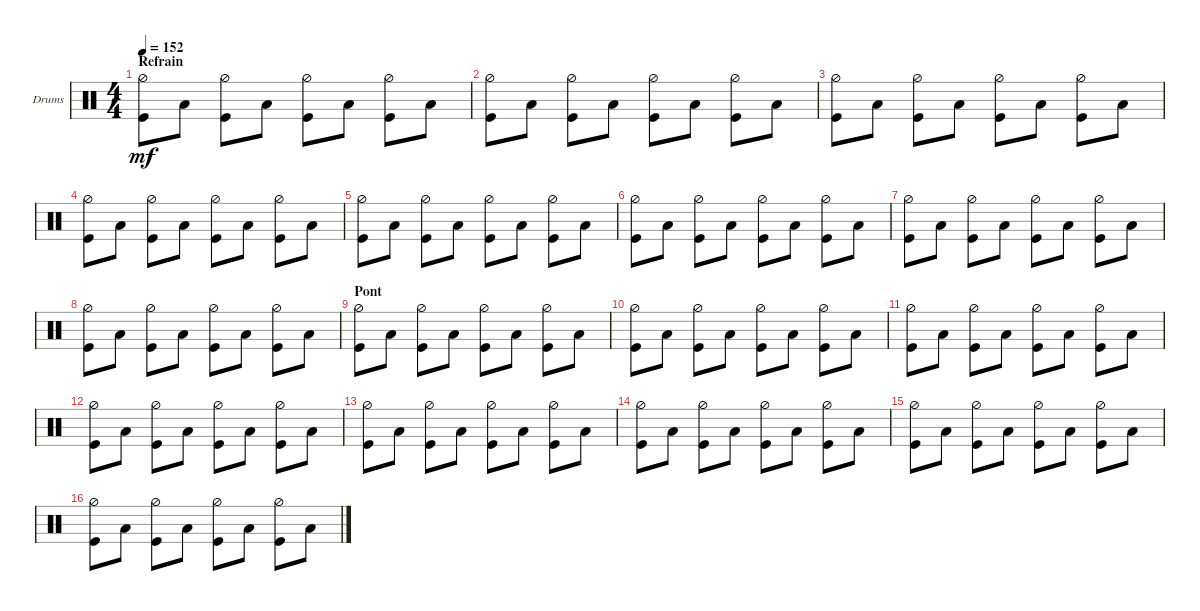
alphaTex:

\defaultSystemsLayout 4
\bracketExtendMode groupsimilarinstruments
\firstSystemTrackNameOrientation horizontal
\otherSystemsTrackNameOrientation horizontal
\track ("Dre Drum" "Drums") {instrument percussion}
\staff {score}
\articulation defaults
\ts (4 4)
\section ("" "Refrain")
\tempo 152
\clef neutral
\ks c
("Kick (hit)" "Hi-Hat (half)").8{dy mf} "Low Tom (hit)".8 ("Kick (hit)" "Hi-Hat (half)").8 "Low Tom (hit)".8 ("Kick (hit)" "Hi-Hat (half)").8 "Low Tom (hit)".8 ("Kick (hit)" "Hi-Hat (half)").8 "Low Tom (hit)".8 |
("Kick (hit)" "Hi-Hat (half)").8 "Low Tom (hit)".8 ("Kick (hit)" "Hi-Hat (half)").8 "Low Tom (hit)".8 ("Kick (hit)" "Hi-Hat (half)").8 "Low Tom (hit)".8 ("Kick (hit)" "Hi-Hat (half)").8 "Low Tom (hit)".8 |
("Kick (hit)" "Hi-Hat (half)").8 "Low Tom (hit)".8 ("Kick (hit)" "Hi-Hat (half)").8 "Low Tom (hit)".8 ("Kick (hit)" "Hi-Hat (half)").8 "Low Tom (hit)".8 ("Kick (hit)" "Hi-Hat (half)").8 "Low Tom (hit)".8 |
("Kick (hit)" "Hi-Hat (half)").8 "Low Tom (hit)".8 ("Kick (hit)" "Hi-Hat (half)").8 "Low Tom (hit)".8 ("Kick (hit)" "Hi-Hat (half)").8 "Low Tom (hit)".8 ("Kick (hit)" "Hi-Hat (half)").8 "Low Tom (hit)".8 |
("Kick (hit)" "Hi-Hat (half)").8 "Low Tom (hit)".8 ("Kick (hit)" "Hi-Hat (half)").8 "Low Tom (hit)".8 ("Kick (hit)" "Hi-Hat (half)").8 "Low Tom (hit)".8 ("Kick (hit)" "Hi-Hat (half)").8 "Low Tom (hit)".8 |
("Kick (hit)" "Hi-Hat (half)").8 "Low Tom (hit)".8 ("Kick (hit)" "Hi-Hat (half)").8 "Low Tom (hit)".8 ("Kick (hit)" "Hi-Hat (half)").8 "Low Tom (hit)".8 ("Kick (hit)" "Hi-Hat (half)").8 "Low Tom (hit)".8 |
("Kick (hit)" "Hi-Hat (half)").8 "Low Tom (hit)".8 ("Kick (hit)" "Hi-Hat (half)").8 "Low Tom (hit)".8 ("Kick (hit)" "Hi-Hat (half)").8 "Low Tom (hit)".8 ("Kick (hit)" "Hi-Hat (half)").8 "Low Tom (hit)".8 |
("Kick (hit)" "Hi-Hat (half)").8 "Low Tom (hit)".8 ("Kick (hit)" "Hi-Hat (half)").8 "Low Tom (hit)".8 ("Kick (hit)" "Hi-Hat (half)").8 "Low Tom (hit)".8 ("Kick (hit)" "Hi-Hat (half)").8 "Low Tom (hit)".8 |
\section ("" "Pont")
("Kick (hit)" "Hi-Hat (half)").8 "Low Tom (hit)".8 ("Kick (hit)" "Hi-Hat (half)").8 "Low Tom (hit)".8 ("Kick (hit)" "Hi-Hat (half)").8 "Low Tom (hit)".8 ("Kick (hit)" "Hi-Hat (half)").8 "Low Tom (hit)".8 |
("Kick (hit)" "Hi-Hat (half)").8 "Low Tom (hit)".8 ("Kick (hit)" "Hi-Hat (half)").8 "Low Tom (hit)".8 ("Kick (hit)" "Hi-Hat (half)").8 "Low Tom (hit)".8 ("Kick (hit)" "Hi-Hat (half)").8 "Low Tom (hit)".8 |
("Kick (hit)" "Hi-Hat (half)").8 "Low Tom (hit)".8 ("Kick (hit)" "Hi-Hat (half)").8 "Low Tom (hit)".8 ("Kick (hit)" "Hi-Hat (half)").8 "Low Tom (hit)".8 ("Kick (hit)" "Hi-Hat (half)").8 "Low Tom (hit)".8 |
("Kick (hit)" "Hi-Hat (half)").8 "Low Tom (hit)".8 ("Kick (hit)" "Hi-Hat (half)").8 "Low Tom (hit)".8 ("Kick (hit)" "Hi-Hat (half)").8 "Low Tom (hit)".8 ("Kick (hit)" "Hi-Hat (half)").8 "Low Tom (hit)".8 |
("Kick (hit)" "Hi-Hat (half)").8 "Low Tom (hit)".8 ("Kick (hit)" "Hi-Hat (half)").8 "Low Tom (hit)".8 ("Kick (hit)" "Hi-Hat (half)").8 "Low Tom (hit)".8 ("Kick (hit)" "Hi-Hat (half)").8 "Low Tom (hit)".8 |
("Kick (hit)" "Hi-Hat (half)").8 "Low Tom (hit)".8 ("Kick (hit)" "Hi-Hat (half)").8 "Low Tom (hit)".8 ("Kick (hit)" "Hi-Hat (half)").8 "Low Tom (hit)".8 ("Kick (hit)" "Hi-Hat (half)").8 "Low Tom (hit)".8 |
("Kick (hit)" "Hi-Hat (half)").8 "Low Tom (hit)".8 ("Kick (hit)" "Hi-Hat (half)").8 "Low Tom (hit)".8 ("Kick (hit)" "Hi-Hat (half)").8 "Low Tom (hit)".8 ("Kick (hit)" "Hi-Hat (half)").8 "Low Tom (hit)".8 |
("Kick (hit)" "Hi-Hat (half)").8 "Low Tom (hit)".8 ("Kick (hit)" "Hi-Hat (half)").8 "Low Tom (hit)".8 ("Kick (hit)" "Hi-Hat (half)").8 "Low Tom (hit)".8 ("Kick (hit)" "Hi-Hat (half)").8 "Low Tom (hit)".8
